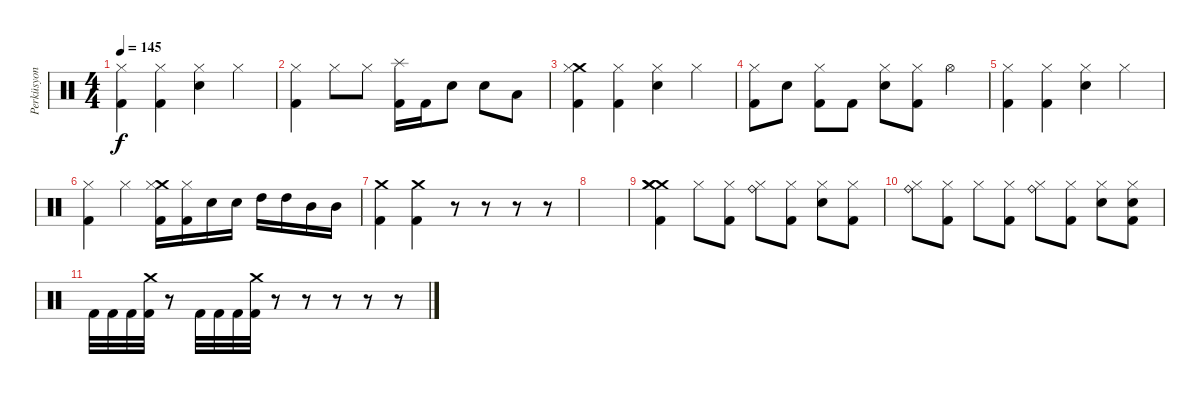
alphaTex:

\track ("Perküsyon" "Perküsyon") {instrument percussion}
\staff {score}
\articulation defaults
\ts (4 4)
\tempo 145
\clef neutral
\ks c
("Kick (hit) 2" "Hi-Hat (closed)").4{dy f} ("Kick (hit) 2" "Hi-Hat (closed)").4 ("Electric Snare (hit)" "Hi-Hat (closed)").4 "Hi-Hat (closed)".4 |
("Kick (hit) 2" "Hi-Hat (closed)").4 "Hi-Hat (closed)".8 "Hi-Hat (closed)".8 ("Kick (hit) 2" "Splash (hit)").16 "Kick (hit) 2".16 "Electric Snare (hit)".8 "Electric Snare (hit)".8 "Low Tom (hit)".8 |
("Kick (hit) 2" "Crash medium (hit)" "Hi-Hat (closed)").4 ("Kick (hit) 2" "Hi-Hat (closed)").4 ("Electric Snare (hit)" "Hi-Hat (closed)").4 "Hi-Hat (closed)".4 |
("Kick (hit) 2" "Hi-Hat (closed)").8 "Electric Snare (hit)".8 ("Kick (hit) 2" "Hi-Hat (closed)").8 "Kick (hit) 2".8 ("Electric Snare (hit)" "Hi-Hat (closed)").8 ("Kick (hit) 2" "Hi-Hat (closed)").8 "Hi-Hat (open)".4 |
("Kick (hit) 2" "Hi-Hat (closed)").4 ("Kick (hit) 2" "Hi-Hat (closed)").4 ("Electric Snare (hit)" "Hi-Hat (closed)").4 "Hi-Hat (closed)".4 |
("Kick (hit) 2" "Hi-Hat (closed)").4 "Hi-Hat (closed)".4 ("Kick (hit) 2" "Crash medium (hit)" "Hi-Hat (closed)").16 ("Kick (hit) 2" "Hi-Hat (closed)").16 "Electric Snare (hit)".16 "Electric Snare (hit)".16 "High Tom (hit)".16 "High Tom (hit)".16 "Mid Tom (hit)".16 "Mid Tom (hit)".16 |
("Kick (hit) 2" "Crash medium (hit)").4 ("Kick (hit) 2" "Crash medium (hit)").4 r.8 r.8 r.8 r.8 |
|
("Crash medium (hit)" "Kick (hit) 2" "Crash medium (hit)" "Crash medium (hit)").4 "Hi-Hat (closed)".8 ("Kick (hit) 2" "Hi-Hat (closed)").8 ("Ride (bell)" "Hi-Hat (closed)").8 ("Kick (hit) 2" "Hi-Hat (closed)").8 ("Electric Snare (hit)" "Hi-Hat (closed)").8 ("Kick (hit) 2" "Hi-Hat (closed)").8 |
("Ride (bell)" "Hi-Hat (closed)").8 ("Kick (hit) 2" "Hi-Hat (closed)").8 "Hi-Hat (closed)".8 ("Kick (hit) 2" "Hi-Hat (closed)").8 ("Ride (bell)" "Hi-Hat (closed)").8 ("Kick (hit) 2" "Hi-Hat (closed)").8 ("Electric Snare (hit)" "Hi-Hat (closed)").8 ("Electric Snare (hit)" "Kick (hit) 2" "Hi-Hat (closed)").8 |
"Kick (hit) 2".32 "Kick (hit) 2".32 "Kick (hit) 2".32 ("Kick (hit) 2" "Crash medium (hit)").32 r.8 "Kick (hit) 2".32 "Kick (hit) 2".32 "Kick (hit) 2".32 ("Kick (hit) 2" "Crash medium (hit)").32 r.8 r.8 r.8 r.8 r.8
